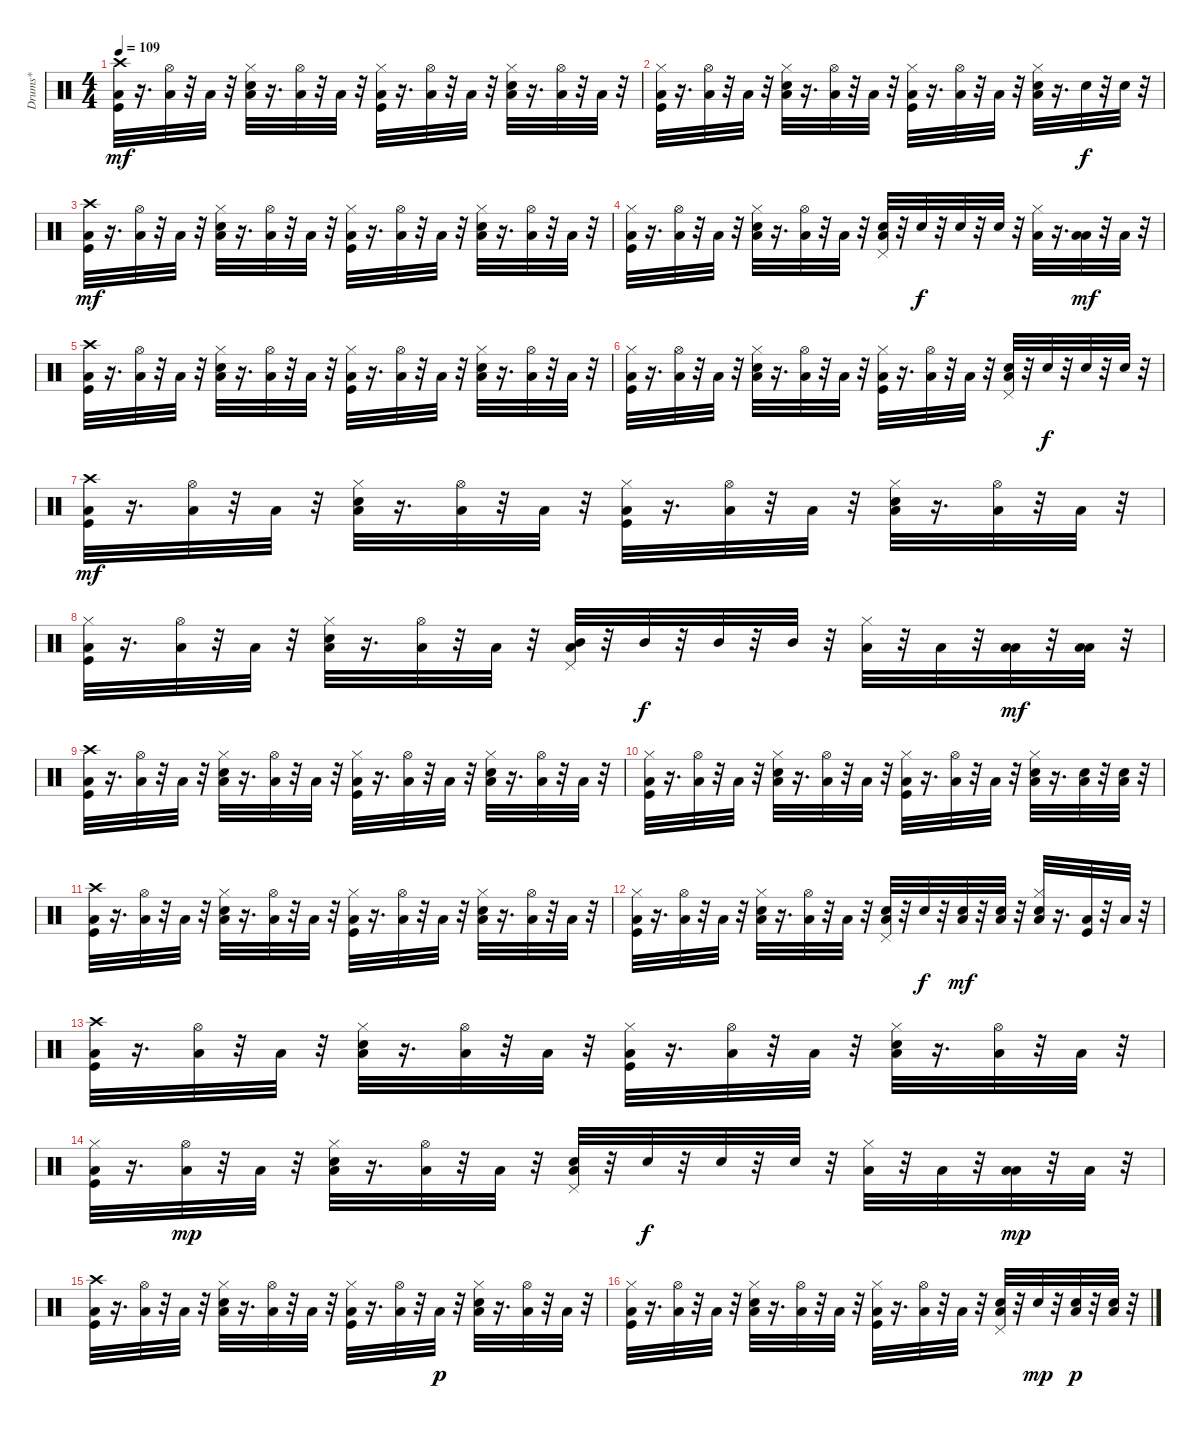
\track ("Drums*" "Drums*") {instrument percussion}
\staff {score}
\articulation defaults
\ts (4 4)
\tempo 109
\clef neutral
\ks c
("Crash high (hit)" "Kick (hit)" "Low Tom (hit)").32{dy mf} r.16{d} ("Hi-Hat (open)" "Low Tom (hit)").32 r.32 "Low Tom (hit)".32 r.32 ("Hi-Hat (closed)" "Snare (hit) 2" "Low Tom (hit)").32 r.16{d} ("Hi-Hat (open)" "Low Tom (hit)").32 r.32 "Low Tom (hit)".32 r.32 ("Hi-Hat (closed)" "Kick (hit)" "Low Tom (hit)").32 r.16{d} ("Hi-Hat (open)" "Low Tom (hit)").32 r.32 "Low Tom (hit)".32 r.32 ("Hi-Hat (closed)" "Snare (hit) 2" "Low Tom (hit)").32 r.16{d} ("Hi-Hat (open)" "Low Tom (hit)").32 r.32 "Low Tom (hit)".32 r.32 |
("Hi-Hat (closed)" "Kick (hit)" "Low Tom (hit)").32 r.16{d} ("Hi-Hat (open)" "Low Tom (hit)").32 r.32 "Low Tom (hit)".32 r.32 ("Hi-Hat (closed)" "Snare (hit) 2" "Low Tom (hit)").32 r.16{d} ("Hi-Hat (open)" "Low Tom (hit)").32 r.32 "Low Tom (hit)".32 r.32 ("Hi-Hat (closed)" "Kick (hit)" "Low Tom (hit)").32 r.16{d} ("Hi-Hat (open)" "Low Tom (hit)").32 r.32 "Low Tom (hit)".32 r.32 ("Hi-Hat (closed)" "Snare (hit) 2" "Low Tom (hit)").32 r.16{d} "Snare (hit) 2".32{dy f} r.32 "Snare (hit) 2".32 r.32 |
("Crash high (hit)" "Kick (hit)" "Low Tom (hit)").32{dy mf} r.16{d} ("Hi-Hat (open)" "Low Tom (hit)").32 r.32 "Low Tom (hit)".32 r.32 ("Hi-Hat (closed)" "Snare (hit) 2" "Low Tom (hit)").32 r.16{d} ("Hi-Hat (open)" "Low Tom (hit)").32 r.32 "Low Tom (hit)".32 r.32 ("Hi-Hat (closed)" "Kick (hit)" "Low Tom (hit)").32 r.16{d} ("Hi-Hat (open)" "Low Tom (hit)").32 r.32 "Low Tom (hit)".32 r.32 ("Hi-Hat (closed)" "Snare (hit) 2" "Low Tom (hit)").32 r.16{d} ("Hi-Hat (open)" "Low Tom (hit)").32 r.32 "Low Tom (hit)".32 r.32 |
("Hi-Hat (closed)" "Kick (hit)" "Low Tom (hit)").32 r.16{d} ("Hi-Hat (open)" "Low Tom (hit)").32 r.32 "Low Tom (hit)".32 r.32 ("Hi-Hat (closed)" "Snare (hit) 2" "Low Tom (hit)").32 r.16{d} ("Hi-Hat (open)" "Low Tom (hit)").32 r.32 "Low Tom (hit)".32 r.32 ("Pedal Hi-Hat (hit)" "Snare (hit) 2" "Low Tom (hit)").32 r.32 "Snare (hit) 2".32{dy f} r.32 "Snare (hit) 2".32 r.32 "Snare (hit) 2".32 r.32 ("Low Tom (hit)" "Hi-Hat (closed)").32 r.16{d} ("Low Tom (hit)" "Low Tom (hit)").32{dy mf} r.32 "Low Tom (hit)".32 r.32 |
("Crash high (hit)" "Kick (hit)" "Low Tom (hit)").32 r.16{d} ("Hi-Hat (open)" "Low Tom (hit)").32 r.32 "Low Tom (hit)".32 r.32 ("Hi-Hat (closed)" "Snare (hit) 2" "Low Tom (hit)").32 r.16{d} ("Hi-Hat (open)" "Low Tom (hit)").32 r.32 "Low Tom (hit)".32 r.32 ("Hi-Hat (closed)" "Kick (hit)" "Low Tom (hit)").32 r.16{d} ("Hi-Hat (open)" "Low Tom (hit)").32 r.32 "Low Tom (hit)".32 r.32 ("Hi-Hat (closed)" "Snare (hit) 2" "Low Tom (hit)").32 r.16{d} ("Hi-Hat (open)" "Low Tom (hit)").32 r.32 "Low Tom (hit)".32 r.32 |
("Hi-Hat (closed)" "Kick (hit)" "Low Tom (hit)").32 r.16{d} ("Hi-Hat (open)" "Low Tom (hit)").32 r.32 "Low Tom (hit)".32 r.32 ("Hi-Hat (closed)" "Snare (hit) 2" "Low Tom (hit)").32 r.16{d} ("Hi-Hat (open)" "Low Tom (hit)").32 r.32 "Low Tom (hit)".32 r.32 ("Hi-Hat (closed)" "Kick (hit)" "Low Tom (hit)").32 r.16{d} ("Hi-Hat (open)" "Low Tom (hit)").32 r.32 "Low Tom (hit)".32 r.32 ("Pedal Hi-Hat (hit)" "Snare (hit) 2" "Low Tom (hit)").32 r.32 "Snare (hit) 2".32{dy f} r.32 "Snare (hit) 2".32 r.32 "Snare (hit) 2".32 r.32 |
("Crash high (hit)" "Kick (hit)" "Low Tom (hit)").32{dy mf} r.16{d} ("Hi-Hat (open)" "Low Tom (hit)").32 r.32 "Low Tom (hit)".32 r.32 ("Hi-Hat (closed)" "Snare (hit) 2" "Low Tom (hit)").32 r.16{d} ("Hi-Hat (open)" "Low Tom (hit)").32 r.32 "Low Tom (hit)".32 r.32 ("Hi-Hat (closed)" "Kick (hit)" "Low Tom (hit)").32 r.16{d} ("Hi-Hat (open)" "Low Tom (hit)").32 r.32 "Low Tom (hit)".32 r.32 ("Hi-Hat (closed)" "Snare (hit) 2" "Low Tom (hit)").32 r.16{d} ("Hi-Hat (open)" "Low Tom (hit)").32 r.32 "Low Tom (hit)".32 r.32 |
("Hi-Hat (closed)" "Kick (hit)" "Low Tom (hit)").32 r.16{d} ("Hi-Hat (open)" "Low Tom (hit)").32 r.32 "Low Tom (hit)".32 r.32 ("Hi-Hat (closed)" "Snare (hit) 2" "Low Tom (hit)").32 r.16{d} ("Hi-Hat (open)" "Low Tom (hit)").32 r.32 "Low Tom (hit)".32 r.32 ("Mid Tom (hit)" "Pedal Hi-Hat (hit)" "Low Tom (hit)").32 r.32 "Mid Tom (hit)".32{dy f} r.32 "Mid Tom (hit)".32 r.32 "Mid Tom (hit)".32 r.32 ("Low Tom (hit)" "Hi-Hat (closed)").32 r.32 "Low Tom (hit)".32 r.32 ("Low Tom (hit)" "Low Tom (hit)").32{dy mf} r.32 ("Low Tom (hit)" "Low Tom (hit)").32 r.32 |
("Crash high (hit)" "Kick (hit)" "Low Tom (hit)").32 r.16{d} ("Hi-Hat (open)" "Low Tom (hit)").32 r.32 "Low Tom (hit)".32 r.32 ("Hi-Hat (closed)" "Snare (hit) 2" "Low Tom (hit)").32 r.16{d} ("Hi-Hat (open)" "Low Tom (hit)").32 r.32 "Low Tom (hit)".32 r.32 ("Hi-Hat (closed)" "Kick (hit)" "Low Tom (hit)").32 r.16{d} ("Hi-Hat (open)" "Low Tom (hit)").32 r.32 "Low Tom (hit)".32 r.32 ("Hi-Hat (closed)" "Snare (hit) 2" "Low Tom (hit)").32 r.16{d} ("Hi-Hat (open)" "Low Tom (hit)").32 r.32 "Low Tom (hit)".32 r.32 |
("Hi-Hat (closed)" "Kick (hit)" "Low Tom (hit)").32 r.16{d} ("Hi-Hat (open)" "Low Tom (hit)").32 r.32 "Low Tom (hit)".32 r.32 ("Hi-Hat (closed)" "Snare (hit) 2" "Low Tom (hit)").32 r.16{d} ("Hi-Hat (open)" "Low Tom (hit)").32 r.32 "Low Tom (hit)".32 r.32 ("Hi-Hat (closed)" "Kick (hit)" "Low Tom (hit)").32 r.16{d} ("Hi-Hat (open)" "Low Tom (hit)").32 r.32 "Low Tom (hit)".32 r.32 ("Hi-Hat (closed)" "Snare (hit) 2" "Low Tom (hit)").32 r.16{d} ("Snare (hit) 2" "Low Tom (hit)").32 r.32 ("Snare (hit) 2" "Low Tom (hit)").32 r.32 |
("Crash high (hit)" "Kick (hit)" "Low Tom (hit)").32 r.16{d} ("Hi-Hat (open)" "Low Tom (hit)").32 r.32 "Low Tom (hit)".32 r.32 ("Hi-Hat (closed)" "Snare (hit) 2" "Low Tom (hit)").32 r.16{d} ("Hi-Hat (open)" "Low Tom (hit)").32 r.32 "Low Tom (hit)".32 r.32 ("Hi-Hat (closed)" "Kick (hit)" "Low Tom (hit)").32 r.16{d} ("Hi-Hat (open)" "Low Tom (hit)").32 r.32 "Low Tom (hit)".32 r.32 ("Hi-Hat (closed)" "Snare (hit) 2" "Low Tom (hit)").32 r.16{d} ("Hi-Hat (open)" "Low Tom (hit)").32 r.32 "Low Tom (hit)".32 r.32 |
("Hi-Hat (closed)" "Kick (hit)" "Low Tom (hit)").32 r.16{d} ("Hi-Hat (open)" "Low Tom (hit)").32 r.32 "Low Tom (hit)".32 r.32 ("Hi-Hat (closed)" "Snare (hit) 2" "Low Tom (hit)").32 r.16{d} ("Hi-Hat (open)" "Low Tom (hit)").32 r.32 "Low Tom (hit)".32 r.32 ("Pedal Hi-Hat (hit)" "Snare (hit) 2" "Low Tom (hit)").32 r.32 "Snare (hit) 2".32{dy f} r.32 ("Snare (hit) 2" "Low Tom (hit)").32{dy mf} r.32 ("Snare (hit) 2" "Low Tom (hit)").32 r.32 ("Snare (hit) 2" "Hi-Hat (closed)" "Low Tom (hit)").32 r.16{d} ("Kick (hit)" "Low Tom (hit)").32 r.32 "Low Tom (hit)".32 r.32 |
("Crash high (hit)" "Kick (hit)" "Low Tom (hit)").32 r.16{d} ("Hi-Hat (open)" "Low Tom (hit)").32 r.32 "Low Tom (hit)".32 r.32 ("Hi-Hat (closed)" "Snare (hit) 2" "Low Tom (hit)").32 r.16{d} ("Hi-Hat (open)" "Low Tom (hit)").32 r.32 "Low Tom (hit)".32 r.32 ("Hi-Hat (closed)" "Kick (hit)" "Low Tom (hit)").32 r.16{d} ("Hi-Hat (open)" "Low Tom (hit)").32 r.32 "Low Tom (hit)".32 r.32 ("Hi-Hat (closed)" "Snare (hit) 2" "Low Tom (hit)").32 r.16{d} ("Hi-Hat (open)" "Low Tom (hit)").32 r.32 "Low Tom (hit)".32 r.32 |
("Hi-Hat (closed)" "Kick (hit)" "Low Tom (hit)").32 r.16{d} ("Hi-Hat (open)" "Low Tom (hit)").32{dy mp} r.32 "Low Tom (hit)".32 r.32 ("Hi-Hat (closed)" "Snare (hit) 2" "Low Tom (hit)").32 r.16{d} ("Hi-Hat (open)" "Low Tom (hit)").32 r.32 "Low Tom (hit)".32 r.32 ("Pedal Hi-Hat (hit)" "Snare (hit) 2" "Low Tom (hit)").32 r.32 "Snare (hit) 2".32{dy f} r.32 "Snare (hit) 2".32 r.32 "Snare (hit) 2".32 r.32 ("Low Tom (hit)" "Hi-Hat (closed)").32 r.32 "Low Tom (hit)".32 r.32 ("Low Tom (hit)" "Low Tom (hit)").32{dy mp} r.32 "Low Tom (hit)".32 r.32 |
("Crash high (hit)" "Kick (hit)" "Low Tom (hit)").32 r.16{d} ("Hi-Hat (open)" "Low Tom (hit)").32 r.32 "Low Tom (hit)".32 r.32 ("Hi-Hat (closed)" "Snare (hit) 2" "Low Tom (hit)").32 r.16{d} ("Hi-Hat (open)" "Low Tom (hit)").32 r.32 "Low Tom (hit)".32 r.32 ("Hi-Hat (closed)" "Kick (hit)" "Low Tom (hit)").32 r.16{d} ("Hi-Hat (open)" "Low Tom (hit)").32 r.32 "Low Tom (hit)".32{dy p} r.32 ("Hi-Hat (closed)" "Snare (hit) 2" "Low Tom (hit)").32 r.16{d} ("Hi-Hat (open)" "Low Tom (hit)").32 r.32 "Low Tom (hit)".32 r.32 |
("Hi-Hat (closed)" "Kick (hit)" "Low Tom (hit)").32 r.16{d} ("Hi-Hat (open)" "Low Tom (hit)").32 r.32 "Low Tom (hit)".32 r.32 ("Hi-Hat (closed)" "Snare (hit) 2" "Low Tom (hit)").32 r.16{d} ("Hi-Hat (open)" "Low Tom (hit)").32 r.32 "Low Tom (hit)".32 r.32 ("Hi-Hat (closed)" "Kick (hit)" "Low Tom (hit)").32 r.16{d} ("Hi-Hat (open)" "Low Tom (hit)").32 r.32 "Low Tom (hit)".32 r.32 ("Pedal Hi-Hat (hit)" "Snare (hit) 2" "Low Tom (hit)").32 r.32 "Snare (hit) 2".32{dy mp} r.32 ("Snare (hit) 2" "Low Tom (hit)").32{dy p} r.32 ("Snare (hit) 2" "Low Tom (hit)").32 r.32
